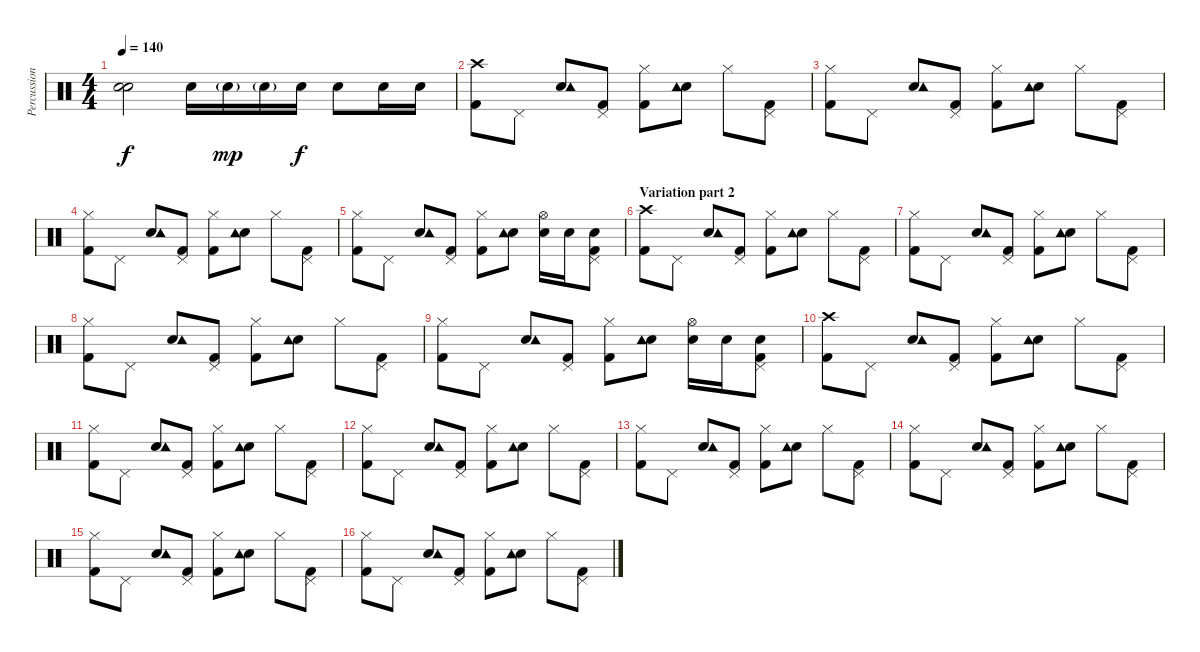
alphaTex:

\track ("Percussion" "Percussion") {instrument percussion}
\staff {score}
\articulation defaults
\ts (4 4)
\tempo 140
\clef neutral
\ks c
("Snare (hit)"{t} "Snare (hit)"{t}).2{dy f} "Electric Snare (hit)".16 "Electric Snare (hit)"{g}.16{dy mp} "Electric Snare (hit)"{g}.16 "Electric Snare (hit)".16{dy f} "Electric Snare (hit)".8 "Electric Snare (hit)".16 "Electric Snare (hit)".16 |
("Kick (hit) 2" "Crash high (hit)").8 "Pedal Hi-Hat (hit)".8 ("Electric Snare (hit)" "Tambourine (hit)").8 ("Kick (hit) 2" "Pedal Hi-Hat (hit)").8 ("Kick (hit) 2" "Hi-Hat (closed)").8 ("Electric Snare (hit)" "Tambourine (hit)").8 "Hi-Hat (closed)".8 ("Kick (hit) 2" "Pedal Hi-Hat (hit)").8 |
("Kick (hit) 2" "Hi-Hat (closed)").8 "Pedal Hi-Hat (hit)".8 ("Electric Snare (hit)" "Tambourine (hit)").8 ("Kick (hit) 2" "Pedal Hi-Hat (hit)").8 ("Kick (hit) 2" "Hi-Hat (closed)").8 ("Electric Snare (hit)" "Tambourine (hit)").8 "Hi-Hat (closed)".8 ("Kick (hit) 2" "Pedal Hi-Hat (hit)").8 |
("Kick (hit) 2" "Hi-Hat (closed)").8 "Pedal Hi-Hat (hit)".8 ("Electric Snare (hit)" "Tambourine (hit)").8 ("Kick (hit) 2" "Pedal Hi-Hat (hit)").8 ("Kick (hit) 2" "Hi-Hat (closed)").8 ("Electric Snare (hit)" "Tambourine (hit)").8 "Hi-Hat (closed)".8 ("Kick (hit) 2" "Pedal Hi-Hat (hit)").8 |
("Kick (hit) 2" "Hi-Hat (closed)").8 "Pedal Hi-Hat (hit)".8 ("Electric Snare (hit)" "Tambourine (hit)").8 ("Kick (hit) 2" "Pedal Hi-Hat (hit)").8 ("Kick (hit) 2" "Hi-Hat (closed)").8 ("Electric Snare (hit)" "Tambourine (hit)").8 ("Electric Snare (hit)" "Hi-Hat (open)").16 "Electric Snare (hit)".16 ("Kick (hit) 2" "Electric Snare (hit)" "Pedal Hi-Hat (hit)").8 |
\section ("" "Variation part 2")
("Kick (hit) 2" "Crash high (hit)").8 "Pedal Hi-Hat (hit)".8 ("Electric Snare (hit)" "Tambourine (hit)").8 ("Kick (hit) 2" "Pedal Hi-Hat (hit)").8 ("Kick (hit) 2" "Hi-Hat (closed)").8 ("Electric Snare (hit)" "Tambourine (hit)").8 "Hi-Hat (closed)".8 ("Kick (hit) 2" "Pedal Hi-Hat (hit)").8 |
("Kick (hit) 2" "Hi-Hat (closed)").8 "Pedal Hi-Hat (hit)".8 ("Electric Snare (hit)" "Tambourine (hit)").8 ("Kick (hit) 2" "Pedal Hi-Hat (hit)").8 ("Kick (hit) 2" "Hi-Hat (closed)").8 ("Electric Snare (hit)" "Tambourine (hit)").8 "Hi-Hat (closed)".8 ("Kick (hit) 2" "Pedal Hi-Hat (hit)").8 |
("Kick (hit) 2" "Hi-Hat (closed)").8 "Pedal Hi-Hat (hit)".8 ("Electric Snare (hit)" "Tambourine (hit)").8 ("Kick (hit) 2" "Pedal Hi-Hat (hit)").8 ("Kick (hit) 2" "Hi-Hat (closed)").8 ("Electric Snare (hit)" "Tambourine (hit)").8 "Hi-Hat (closed)".8 ("Kick (hit) 2" "Pedal Hi-Hat (hit)").8 |
("Kick (hit) 2" "Hi-Hat (closed)").8 "Pedal Hi-Hat (hit)".8 ("Electric Snare (hit)" "Tambourine (hit)").8 ("Kick (hit) 2" "Pedal Hi-Hat (hit)").8 ("Kick (hit) 2" "Hi-Hat (closed)").8 ("Electric Snare (hit)" "Tambourine (hit)").8 ("Electric Snare (hit)" "Hi-Hat (open)").16 "Electric Snare (hit)".16 ("Kick (hit) 2" "Electric Snare (hit)" "Pedal Hi-Hat (hit)").8 |
("Kick (hit) 2" "Crash high (hit)").8 "Pedal Hi-Hat (hit)".8 ("Electric Snare (hit)" "Tambourine (hit)").8 ("Kick (hit) 2" "Pedal Hi-Hat (hit)").8 ("Kick (hit) 2" "Hi-Hat (closed)").8 ("Electric Snare (hit)" "Tambourine (hit)").8 "Hi-Hat (closed)".8 ("Kick (hit) 2" "Pedal Hi-Hat (hit)").8 |
("Kick (hit) 2" "Hi-Hat (closed)").8 "Pedal Hi-Hat (hit)".8 ("Electric Snare (hit)" "Tambourine (hit)").8 ("Kick (hit) 2" "Pedal Hi-Hat (hit)").8 ("Kick (hit) 2" "Hi-Hat (closed)").8 ("Electric Snare (hit)" "Tambourine (hit)").8 "Hi-Hat (closed)".8 ("Kick (hit) 2" "Pedal Hi-Hat (hit)").8 |
("Kick (hit) 2" "Hi-Hat (closed)").8 "Pedal Hi-Hat (hit)".8 ("Electric Snare (hit)" "Tambourine (hit)").8 ("Kick (hit) 2" "Pedal Hi-Hat (hit)").8 ("Kick (hit) 2" "Hi-Hat (closed)").8 ("Electric Snare (hit)" "Tambourine (hit)").8 "Hi-Hat (closed)".8 ("Kick (hit) 2" "Pedal Hi-Hat (hit)").8 |
("Kick (hit) 2" "Hi-Hat (closed)").8 "Pedal Hi-Hat (hit)".8 ("Electric Snare (hit)" "Tambourine (hit)").8 ("Kick (hit) 2" "Pedal Hi-Hat (hit)").8 ("Kick (hit) 2" "Hi-Hat (closed)").8 ("Electric Snare (hit)" "Tambourine (hit)").8 "Hi-Hat (closed)".8 ("Kick (hit) 2" "Pedal Hi-Hat (hit)").8 |
("Kick (hit) 2" "Hi-Hat (closed)").8 "Pedal Hi-Hat (hit)".8 ("Electric Snare (hit)" "Tambourine (hit)").8 ("Kick (hit) 2" "Pedal Hi-Hat (hit)").8 ("Kick (hit) 2" "Hi-Hat (closed)").8 ("Electric Snare (hit)" "Tambourine (hit)").8 "Hi-Hat (closed)".8 ("Kick (hit) 2" "Pedal Hi-Hat (hit)").8 |
("Kick (hit) 2" "Hi-Hat (closed)").8 "Pedal Hi-Hat (hit)".8 ("Electric Snare (hit)" "Tambourine (hit)").8 ("Kick (hit) 2" "Pedal Hi-Hat (hit)").8 ("Kick (hit) 2" "Hi-Hat (closed)").8 ("Electric Snare (hit)" "Tambourine (hit)").8 "Hi-Hat (closed)".8 ("Kick (hit) 2" "Pedal Hi-Hat (hit)").8 |
("Kick (hit) 2" "Hi-Hat (closed)").8 "Pedal Hi-Hat (hit)".8 ("Electric Snare (hit)" "Tambourine (hit)").8 ("Kick (hit) 2" "Pedal Hi-Hat (hit)").8 ("Kick (hit) 2" "Hi-Hat (closed)").8 ("Electric Snare (hit)" "Tambourine (hit)").8 "Hi-Hat (closed)".8 ("Kick (hit) 2" "Pedal Hi-Hat (hit)").8
